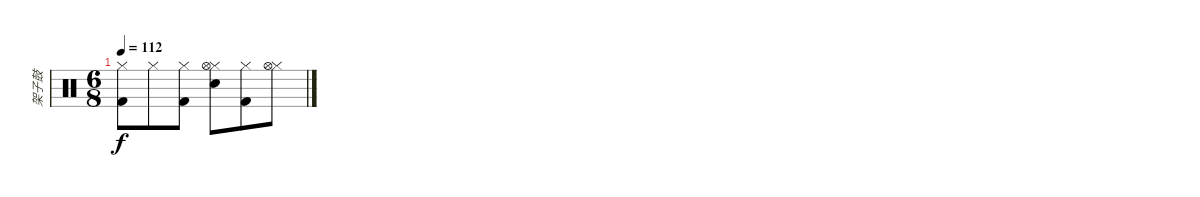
\track ("架子鼓" "架子鼓") {instrument percussion bank 1}
\staff {score}
\articulation defaults
\ts (6 8)
\tempo 112
\clef neutral
\ks c
("Hi-Hat (closed)" "Kick (hit) 2").8{dy f} "Hi-Hat (closed)".8 ("Hi-Hat (closed)" "Kick (hit) 2").8 ("Hi-Hat (closed)" "Snare (hit) 2" "Hi-Hat (open)").8 ("Hi-Hat (closed)" "Kick (hit) 2").8 ("Hi-Hat (closed)" "Hi-Hat (open)").8
